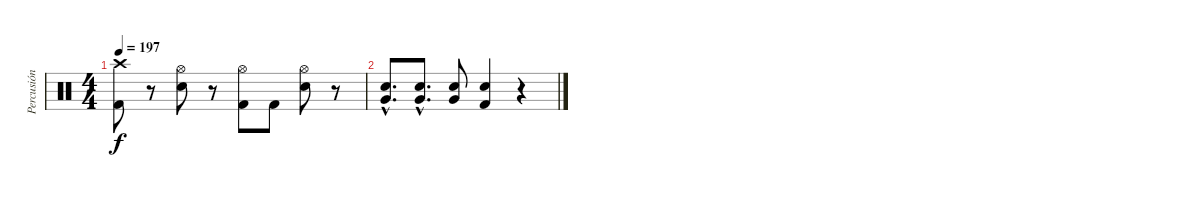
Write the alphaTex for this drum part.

\track ("Percusión" "Percusión") {instrument percussion}
\staff {score}
\articulation defaults
\ts (4 4)
\tempo 197
\clef neutral
\ks c
("Crash high (hit)" "Kick (hit) 2").8{dy f} r.8 ("Hi-Hat (open)" "Electric Snare (hit)").8 r.8 ("Hi-Hat (open)" "Kick (hit) 2").8 "Kick (hit) 2".8 ("Hi-Hat (open)" "Electric Snare (hit)").8 r.8 |
("Very Low Tom (hit)"{hac} "Electric Snare (hit)"{hac}).8{d} ("Very Low Tom (hit)"{hac} "Electric Snare (hit)"{hac}).8{d} ("Very Low Tom (hit)" "Electric Snare (hit)").8 ("Electric Snare (hit)" "Kick (hit) 2").4 r.4
